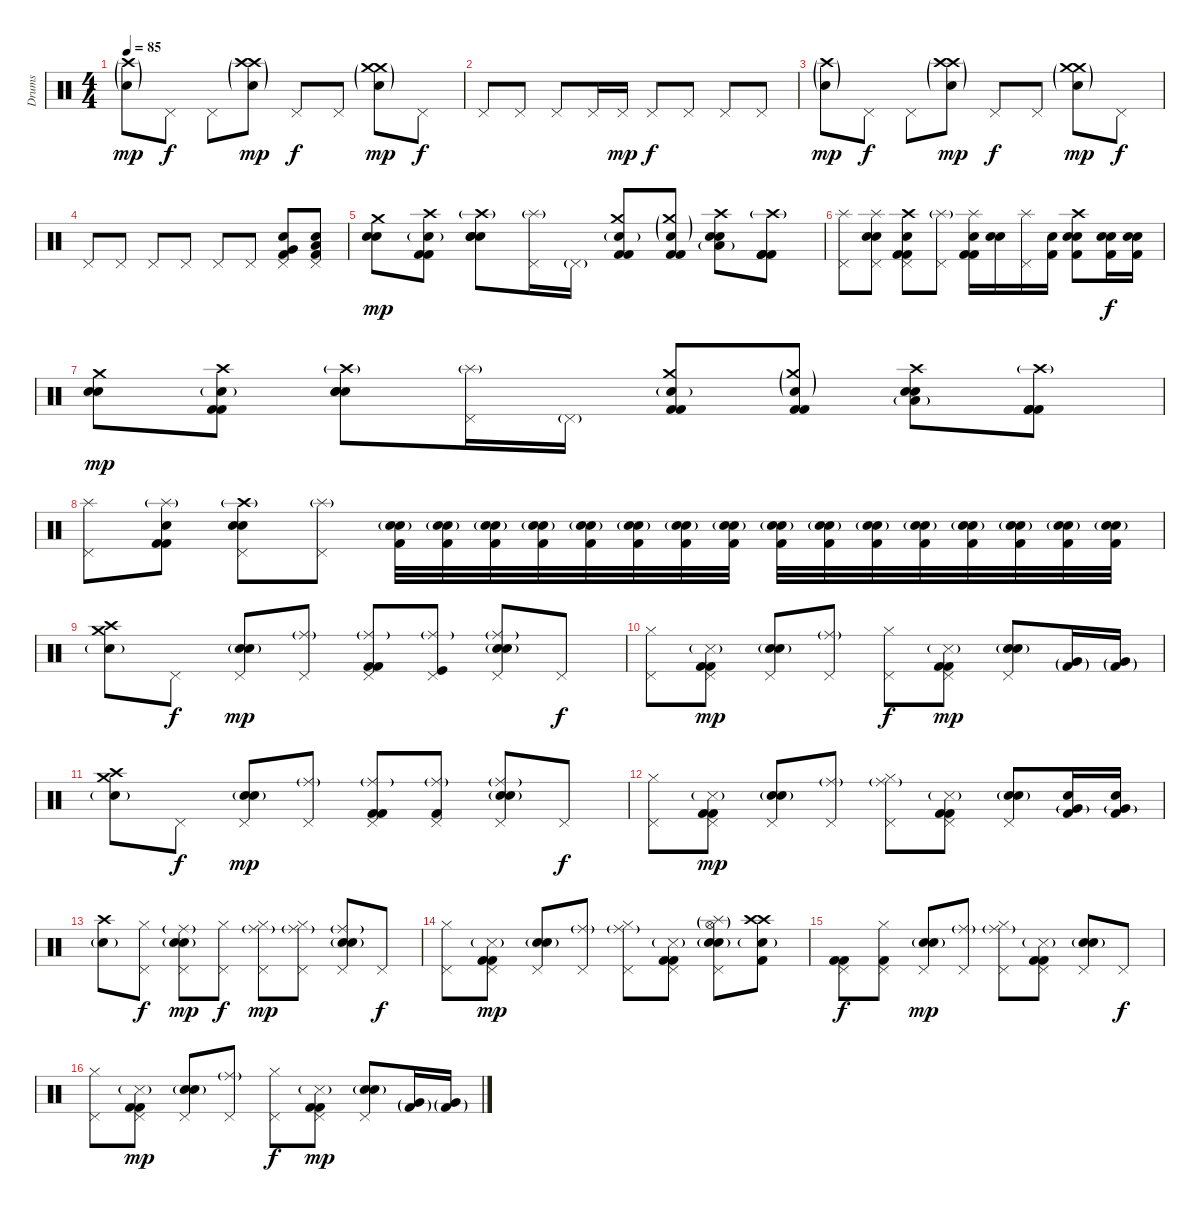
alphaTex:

\track ("Drums" "Drums") {instrument percussion}
\staff {score}
\articulation defaults
\ts (4 4)
\tempo 85
\clef neutral
\ks c
("Crash high (hit)"{g} "Electric Snare (hit)"{g}).8{dy mp} "Pedal Hi-Hat (hit)".8{dy f} "Pedal Hi-Hat (hit)".8 ("Crash high (hit)"{g} "Electric Snare (hit)"{g} "Crash high (hit)"{g}).8{dy mp} "Pedal Hi-Hat (hit)".8{dy f} "Pedal Hi-Hat (hit)".8 ("Crash medium (hit)"{g} "Electric Snare (hit)"{g} "Crash medium (hit)"{g}).8{dy mp} "Pedal Hi-Hat (hit)".8{dy f} |
"Pedal Hi-Hat (hit)".8 "Pedal Hi-Hat (hit)".8 "Pedal Hi-Hat (hit)".8 "Pedal Hi-Hat (hit)".16 "Pedal Hi-Hat (hit)".16{dy mp} "Pedal Hi-Hat (hit)".8{dy f} "Pedal Hi-Hat (hit)".8 "Pedal Hi-Hat (hit)".8 "Pedal Hi-Hat (hit)".8 |
("Crash high (hit)"{g} "Electric Snare (hit)"{g}).8{dy mp} "Pedal Hi-Hat (hit)".8{dy f} "Pedal Hi-Hat (hit)".8 ("Crash high (hit)"{g} "Electric Snare (hit)"{g} "Crash high (hit)"{g}).8{dy mp} "Pedal Hi-Hat (hit)".8{dy f} "Pedal Hi-Hat (hit)".8 ("Crash medium (hit)"{g} "Electric Snare (hit)"{g} "Crash medium (hit)"{g}).8{dy mp} "Pedal Hi-Hat (hit)".8{dy f} |
"Pedal Hi-Hat (hit)".8 "Pedal Hi-Hat (hit)".8 "Pedal Hi-Hat (hit)".8 "Pedal Hi-Hat (hit)".8 "Pedal Hi-Hat (hit)".8 "Pedal Hi-Hat (hit)".8 ("Pedal Hi-Hat (hit)" "Electric Snare (hit)" "Very Low Tom (hit)" "Kick (hit) 2").8 ("Pedal Hi-Hat (hit)" "Electric Snare (hit)" "Low Floor Tom (hit)" "Kick (hit) 2").8 |
("Crash medium (hit)" "Electric Snare (hit)" "Snare (hit) 2").8{dy mp} ("Crash high (hit)" "Kick (hit) 2" "Kick (hit) 2" "Electric Snare (hit)"{g}).8 ("Electric Snare (hit)" "Electric Snare (hit)" "Snare (hit) 2" "Crash high (hit)"{g}).8 ("Pedal Hi-Hat (hit)" "Splash (hit)"{g}).16 "Pedal Hi-Hat (hit)"{g}.16 ("Crash medium (hit)" "Kick (hit) 2" "Kick (hit) 2" "Electric Snare (hit)"{g}).8 ("Crash medium (hit)"{g} "Kick (hit) 2" "Kick (hit) 2" "Electric Snare (hit)"{g}).8 ("Crash high (hit)" "Electric Snare (hit)" "Electric Snare (hit)" "Low Tom (hit)"{g}).8 ("Kick (hit) 2" "Kick (hit) 2" "Kick (hit) 2" "Crash high (hit)"{g}).8 |
("Pedal Hi-Hat (hit)" "Splash (hit)").8 ("Pedal Hi-Hat (hit)" "Electric Snare (hit)" "Snare (hit) 2" "Splash (hit)").8 ("Pedal Hi-Hat (hit)" "Electric Snare (hit)" "Kick (hit) 2" "Kick (hit) 2" "Crash high (hit)").8 ("Pedal Hi-Hat (hit)" "Splash (hit)"{g}).8 ("Electric Snare (hit)" "Kick (hit) 2" "Kick (hit) 2" "Splash (hit)").16 ("Electric Snare (hit)" "Snare (hit) 2").16 ("Pedal Hi-Hat (hit)" "Splash (hit)").16 ("Electric Snare (hit)" "Kick (hit) 2").16 ("Crash high (hit)" "Electric Snare (hit)" "Snare (hit) 2" "Kick (hit) 2").8 ("Electric Snare (hit)" "Electric Snare (hit)" "Kick (hit) 2").16{dy f} ("Electric Snare (hit)" "Electric Snare (hit)" "Kick (hit) 2").16 |
("Crash medium (hit)" "Electric Snare (hit)" "Snare (hit) 2").8{dy mp} ("Crash high (hit)" "Kick (hit) 2" "Kick (hit) 2" "Electric Snare (hit)"{g}).8 ("Electric Snare (hit)" "Electric Snare (hit)" "Snare (hit) 2" "Crash high (hit)"{g}).8 ("Pedal Hi-Hat (hit)" "Splash (hit)"{g}).16 "Pedal Hi-Hat (hit)"{g}.16 ("Crash medium (hit)" "Kick (hit) 2" "Kick (hit) 2" "Electric Snare (hit)"{g}).8 ("Crash medium (hit)"{g} "Kick (hit) 2" "Kick (hit) 2" "Electric Snare (hit)"{g}).8 ("Crash high (hit)" "Electric Snare (hit)" "Electric Snare (hit)" "Low Tom (hit)"{g}).8 ("Kick (hit) 2" "Kick (hit) 2" "Kick (hit) 2" "Crash high (hit)"{g}).8 |
("Pedal Hi-Hat (hit)" "Splash (hit)").8 ("Electric Snare (hit)" "Kick (hit) 2" "Kick (hit) 2" "Splash (hit)"{g}).8 ("Pedal Hi-Hat (hit)" "Electric Snare (hit)" "Snare (hit) 2" "Crash high (hit)"{g}).8 ("Pedal Hi-Hat (hit)" "Splash (hit)"{g}).8 ("Electric Snare (hit)" "Snare (hit) 2"{g} "Kick (hit) 2").32 ("Electric Snare (hit)" "Snare (hit) 2"{g} "Kick (hit) 2").32 ("Electric Snare (hit)" "Snare (hit) 2"{g} "Kick (hit) 2").32 ("Electric Snare (hit)" "Snare (hit) 2"{g} "Kick (hit) 2").32 ("Electric Snare (hit)" "Snare (hit) 2"{g} "Kick (hit) 2").32 ("Electric Snare (hit)" "Snare (hit) 2"{g} "Kick (hit) 2").32 ("Electric Snare (hit)" "Snare (hit) 2"{g} "Kick (hit) 2").32 ("Electric Snare (hit)" "Snare (hit) 2"{g} "Kick (hit) 2").32 ("Electric Snare (hit)" "Snare (hit) 2"{g} "Kick (hit) 2").32 ("Electric Snare (hit)" "Snare (hit) 2"{g} "Kick (hit) 2").32 ("Electric Snare (hit)" "Snare (hit) 2"{g} "Kick (hit) 2").32 ("Electric Snare (hit)" "Snare (hit) 2"{g} "Kick (hit) 2").32 ("Electric Snare (hit)" "Snare (hit) 2"{g} "Kick (hit) 2").32 ("Electric Snare (hit)" "Snare (hit) 2"{g} "Kick (hit) 2").32 ("Electric Snare (hit)" "Snare (hit) 2"{g} "Kick (hit) 2").32 ("Electric Snare (hit)" "Snare (hit) 2"{g} "Kick (hit) 2").32 |
("Crash medium (hit)" "Crash high (hit)" "Electric Snare (hit)"{g}).8 "Pedal Hi-Hat (hit)".8{dy f} ("Pedal Hi-Hat (hit)" "Electric Snare (hit)" "Snare (hit) 2"{g}).8{dy mp} ("Pedal Hi-Hat (hit)" "Ride (middle)"{g}).8 ("Pedal Hi-Hat (hit)" "Kick (hit) 2" "Kick (hit) 2" "Ride (middle)"{g}).8 ("Pedal Hi-Hat (hit)" "Kick (hit)" "Ride (middle)"{g}).8 ("Pedal Hi-Hat (hit)" "Electric Snare (hit)" "Snare (hit) 2"{g} "Ride (middle)"{g}).8 "Pedal Hi-Hat (hit)".8{dy f} |
("Pedal Hi-Hat (hit)" "Hi-Hat (closed)").8 ("Pedal Hi-Hat (hit)" "Kick (hit) 2" "Kick (hit) 2" "Snare (side stick) 3"{g}).8{dy mp} ("Pedal Hi-Hat (hit)" "Electric Snare (hit)" "Snare (hit) 2"{g}).8 ("Pedal Hi-Hat (hit)" "Ride (middle)"{g}).8 ("Pedal Hi-Hat (hit)" "Hi-Hat (closed)").8{dy f} ("Pedal Hi-Hat (hit)" "Kick (hit) 2" "Kick (hit) 2" "Snare (side stick) 3"{g}).8{dy mp} ("Pedal Hi-Hat (hit)" "Electric Snare (hit)" "Snare (hit) 2"{g}).8 ("Kick (hit) 2"{g} "Very Low Tom (hit)"{g}).16 ("Kick (hit) 2"{g} "Very Low Tom (hit)"{g}).16 |
("Crash medium (hit)" "Crash high (hit)" "Electric Snare (hit)"{g}).8 "Pedal Hi-Hat (hit)".8{dy f} ("Pedal Hi-Hat (hit)" "Electric Snare (hit)" "Snare (hit) 2"{g}).8{dy mp} ("Pedal Hi-Hat (hit)" "Ride (middle)"{g}).8 ("Pedal Hi-Hat (hit)" "Kick (hit) 2" "Kick (hit) 2" "Ride (middle)"{g}).8 ("Pedal Hi-Hat (hit)" "Kick (hit) 2" "Ride (middle)"{g}).8 ("Pedal Hi-Hat (hit)" "Electric Snare (hit)" "Snare (hit) 2"{g} "Ride (middle)"{g}).8 "Pedal Hi-Hat (hit)".8{dy f} |
("Pedal Hi-Hat (hit)" "Hi-Hat (closed)").8 ("Pedal Hi-Hat (hit)" "Kick (hit) 2" "Kick (hit) 2" "Snare (side stick) 3"{g}).8{dy mp} ("Pedal Hi-Hat (hit)" "Electric Snare (hit)" "Snare (hit) 2"{g}).8 ("Pedal Hi-Hat (hit)" "Ride (middle)"{g}).8 ("Pedal Hi-Hat (hit)" "Hi-Hat (closed)" "Ride (middle)"{g}).8 ("Pedal Hi-Hat (hit)" "Kick (hit) 2" "Kick (hit) 2" "Snare (side stick) 3"{g}).8 ("Pedal Hi-Hat (hit)" "Electric Snare (hit)" "Snare (hit) 2"{g}).8 ("Kick (hit) 2" "Electric Snare (hit)" "Very Low Tom (hit)"{g}).16 ("Kick (hit) 2" "Electric Snare (hit)" "Very Low Tom (hit)"{g}).16 |
("Crash high (hit)" "Electric Snare (hit)"{g}).8 ("Pedal Hi-Hat (hit)" "Hi-Hat (closed)").8{dy f} ("Pedal Hi-Hat (hit)" "Electric Snare (hit)" "Snare (hit) 2"{g} "Ride (middle)"{g}).8{dy mp} ("Pedal Hi-Hat (hit)" "Hi-Hat (closed)").8{dy f} ("Pedal Hi-Hat (hit)" "Hi-Hat (closed)" "Ride (middle)"{g}).8{dy mp} ("Pedal Hi-Hat (hit)" "Hi-Hat (closed)" "Ride (middle)"{g}).8 ("Pedal Hi-Hat (hit)" "Electric Snare (hit)" "Snare (hit) 2"{g} "Ride (middle)"{g}).8 "Pedal Hi-Hat (hit)".8{dy f} |
("Pedal Hi-Hat (hit)" "Hi-Hat (closed)").8 ("Pedal Hi-Hat (hit)" "Kick (hit) 2" "Kick (hit) 2" "Snare (side stick) 3"{g}).8{dy mp} ("Pedal Hi-Hat (hit)" "Electric Snare (hit)" "Snare (hit) 2"{g}).8 ("Pedal Hi-Hat (hit)" "Ride (middle)"{g}).8 ("Pedal Hi-Hat (hit)" "Hi-Hat (closed)" "Ride (middle)"{g}).8 ("Pedal Hi-Hat (hit)" "Kick (hit) 2" "Kick (hit) 2" "Snare (side stick) 3"{g}).8 ("Pedal Hi-Hat (hit)" "Electric Snare (hit)" "Snare (hit) 2"{g} "Splash (hit)"{g} "Hi-Hat (open)"{g}).8 ("Crash high (hit)" "Crash high (hit)" "Electric Snare (hit)"{g} "Kick (hit) 2").8 |
("Pedal Hi-Hat (hit)" "Kick (hit) 2" "Kick (hit) 2").8{dy f} ("Pedal Hi-Hat (hit)" "Hi-Hat (closed)" "Kick (hit) 2").8 ("Pedal Hi-Hat (hit)" "Electric Snare (hit)" "Snare (hit) 2"{g}).8{dy mp} ("Pedal Hi-Hat (hit)" "Ride (middle)"{g}).8 ("Pedal Hi-Hat (hit)" "Hi-Hat (closed)" "Ride (middle)"{g}).8 ("Pedal Hi-Hat (hit)" "Kick (hit) 2" "Kick (hit) 2" "Snare (side stick) 3"{g}).8 ("Pedal Hi-Hat (hit)" "Electric Snare (hit)" "Snare (hit) 2"{g}).8 "Pedal Hi-Hat (hit)".8{dy f} |
("Pedal Hi-Hat (hit)" "Hi-Hat (closed)").8 ("Pedal Hi-Hat (hit)" "Kick (hit) 2" "Kick (hit) 2" "Snare (side stick) 3"{g}).8{dy mp} ("Pedal Hi-Hat (hit)" "Electric Snare (hit)" "Snare (hit) 2"{g}).8 ("Pedal Hi-Hat (hit)" "Ride (middle)"{g}).8 ("Pedal Hi-Hat (hit)" "Hi-Hat (closed)").8{dy f} ("Pedal Hi-Hat (hit)" "Kick (hit) 2" "Kick (hit) 2" "Snare (side stick) 3"{g}).8{dy mp} ("Pedal Hi-Hat (hit)" "Electric Snare (hit)" "Snare (hit) 2"{g}).8 ("Kick (hit) 2"{g} "Very Low Tom (hit)"{g}).16 ("Kick (hit) 2"{g} "Very Low Tom (hit)"{g}).16
